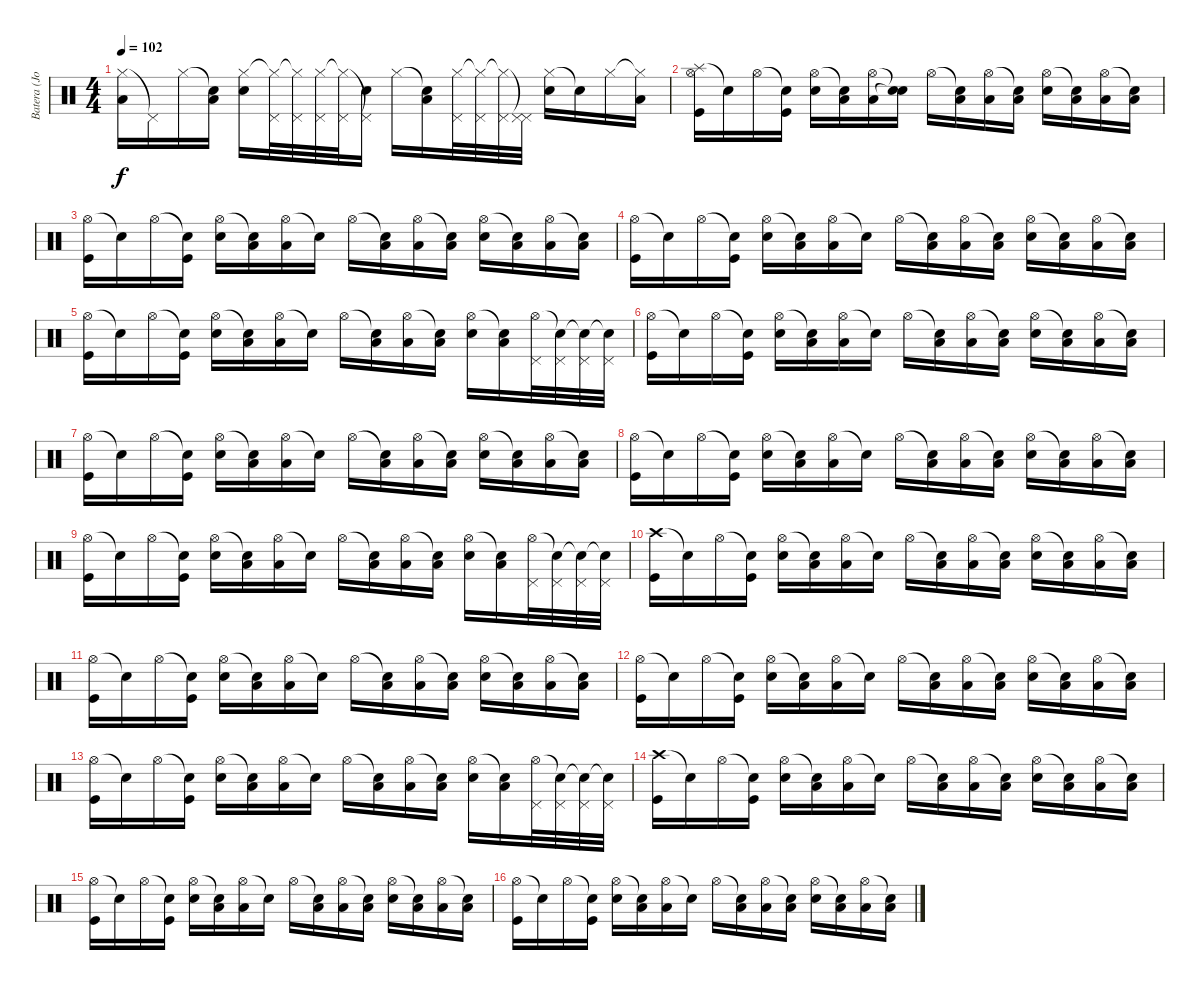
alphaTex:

\track ("Batera (John)" "Batera (Jo") {instrument percussion}
\staff {score}
\articulation defaults
\ts (4 4)
\tempo 102
\clef neutral
\ks c
("Hi-Hat (closed)" "Low Tom (hit)").16{dy f} "Pedal Hi-Hat (hit)"{t}.16 "Hi-Hat (closed)".16 ("Snare (hit)"{t} "Low Tom (hit)").16 ("Hi-Hat (closed)" "Snare (hit) 2").16 ("Hi-Hat (closed)"{t} "Pedal Hi-Hat (hit)").32 ("Hi-Hat (closed)"{t} "Pedal Hi-Hat (hit)").32 ("Hi-Hat (closed)" "Pedal Hi-Hat (hit)").32 ("Hi-Hat (closed)"{t} "Pedal Hi-Hat (hit)").32 ("Pedal Hi-Hat (hit)"{t} "Snare (hit) 2").16 "Hi-Hat (closed)".16 ("Snare (hit)"{t} "Low Tom (hit)").16 ("Hi-Hat (closed)" "Pedal Hi-Hat (hit)").32 ("Hi-Hat (closed)"{t} "Pedal Hi-Hat (hit)").32 ("Hi-Hat (closed)"{t} "Pedal Hi-Hat (hit)").32 ("Pedal Hi-Hat (hit)"{t} "Pedal Hi-Hat (hit)").32 ("Hi-Hat (closed)" "Snare (hit) 2").16 "Snare (hit)"{t}.16 "Hi-Hat (closed)".16 ("Hi-Hat (closed)"{t} "Low Tom (hit)").16 |
("Splash (hit)" "Hi-Hat (open)" "Kick (hit)").16 "Snare (hit)"{t}.16 "Hi-Hat (open)".16 ("Snare (hit)"{t} "Kick (hit)").16 ("Hi-Hat (open)" "Snare (hit) 2").16 ("Snare (hit)"{t} "Low Tom (hit)").16 ("Hi-Hat (open)" "Low Tom (hit)").16 ("Snare (hit)"{t} "Snare (hit)"{t}).16 "Hi-Hat (open)".16 ("Snare (hit)"{t} "Low Tom (hit)").16 ("Hi-Hat (open)" "Low Tom (hit)").16 ("Snare (hit)"{t} "Low Tom (hit)").16 ("Hi-Hat (open)" "Snare (hit) 2").16 ("Snare (hit)"{t} "Low Tom (hit)").16 ("Hi-Hat (open)" "Low Tom (hit)").16 ("Snare (hit)"{t} "Low Tom (hit)").16 |
("Hi-Hat (open)" "Kick (hit)").16 "Snare (hit)"{t}.16 "Hi-Hat (open)".16 ("Snare (hit)"{t} "Kick (hit)").16 ("Hi-Hat (open)" "Snare (hit) 2").16 ("Snare (hit)"{t} "Low Tom (hit)").16 ("Hi-Hat (open)" "Low Tom (hit)").16 "Snare (hit)"{t}.16 "Hi-Hat (open)".16 ("Snare (hit)"{t} "Low Tom (hit)").16 ("Hi-Hat (open)" "Low Tom (hit)").16 ("Snare (hit)"{t} "Low Tom (hit)").16 ("Hi-Hat (open)" "Snare (hit) 2").16 ("Snare (hit)"{t} "Low Tom (hit)").16 ("Hi-Hat (open)" "Low Tom (hit)").16 ("Snare (hit)"{t} "Low Tom (hit)").16 |
("Hi-Hat (open)" "Kick (hit)").16 "Snare (hit)"{t}.16 "Hi-Hat (open)".16 ("Snare (hit)"{t} "Kick (hit)").16 ("Hi-Hat (open)" "Snare (hit) 2").16 ("Snare (hit)"{t} "Low Tom (hit)").16 ("Hi-Hat (open)" "Low Tom (hit)").16 "Snare (hit)"{t}.16 "Hi-Hat (open)".16 ("Snare (hit)"{t} "Low Tom (hit)").16 ("Hi-Hat (open)" "Low Tom (hit)").16 ("Snare (hit)"{t} "Low Tom (hit)").16 ("Hi-Hat (open)" "Snare (hit) 2").16 ("Snare (hit)"{t} "Low Tom (hit)").16 ("Hi-Hat (open)" "Low Tom (hit)").16 ("Snare (hit)"{t} "Low Tom (hit)").16 |
("Hi-Hat (open)" "Kick (hit)").16 "Snare (hit)"{t}.16 "Hi-Hat (open)".16 ("Snare (hit)"{t} "Kick (hit)").16 ("Hi-Hat (open)" "Snare (hit) 2").16 ("Snare (hit)"{t} "Low Tom (hit)").16 ("Hi-Hat (open)" "Low Tom (hit)").16 "Snare (hit)"{t}.16 "Hi-Hat (open)".16 ("Snare (hit)"{t} "Low Tom (hit)").16 ("Hi-Hat (open)" "Low Tom (hit)").16 ("Snare (hit)"{t} "Low Tom (hit)").16 ("Hi-Hat (open)" "Snare (hit) 2").16 ("Snare (hit)"{t} "Low Tom (hit)").16 ("Hi-Hat (open)" "Pedal Hi-Hat (hit)").32 ("Snare (hit)"{t} "Pedal Hi-Hat (hit)").32 ("Snare (hit)"{t} "Pedal Hi-Hat (hit)").32 ("Snare (hit)"{t} "Pedal Hi-Hat (hit)").32 |
("Hi-Hat (open)" "Kick (hit)").16 "Snare (hit)"{t}.16 "Hi-Hat (open)".16 ("Snare (hit)"{t} "Kick (hit)").16 ("Hi-Hat (open)" "Snare (hit) 2").16 ("Snare (hit)"{t} "Low Tom (hit)").16 ("Hi-Hat (open)" "Low Tom (hit)").16 "Snare (hit)"{t}.16 "Hi-Hat (open)".16 ("Snare (hit)"{t} "Low Tom (hit)").16 ("Hi-Hat (open)" "Low Tom (hit)").16 ("Snare (hit)"{t} "Low Tom (hit)").16 ("Hi-Hat (open)" "Snare (hit) 2").16 ("Snare (hit)"{t} "Low Tom (hit)").16 ("Hi-Hat (open)" "Low Tom (hit)").16 ("Snare (hit)"{t} "Low Tom (hit)").16 |
("Hi-Hat (open)" "Kick (hit)").16 "Snare (hit)"{t}.16 "Hi-Hat (open)".16 ("Snare (hit)"{t} "Kick (hit)").16 ("Hi-Hat (open)" "Snare (hit) 2").16 ("Snare (hit)"{t} "Low Tom (hit)").16 ("Hi-Hat (open)" "Low Tom (hit)").16 "Snare (hit)"{t}.16 "Hi-Hat (open)".16 ("Snare (hit)"{t} "Low Tom (hit)").16 ("Hi-Hat (open)" "Low Tom (hit)").16 ("Snare (hit)"{t} "Low Tom (hit)").16 ("Hi-Hat (open)" "Snare (hit) 2").16 ("Snare (hit)"{t} "Low Tom (hit)").16 ("Hi-Hat (open)" "Low Tom (hit)").16 ("Snare (hit)"{t} "Low Tom (hit)").16 |
("Hi-Hat (open)" "Kick (hit)").16 "Snare (hit)"{t}.16 "Hi-Hat (open)".16 ("Snare (hit)"{t} "Kick (hit)").16 ("Hi-Hat (open)" "Snare (hit) 2").16 ("Snare (hit)"{t} "Low Tom (hit)").16 ("Hi-Hat (open)" "Low Tom (hit)").16 "Snare (hit)"{t}.16 "Hi-Hat (open)".16 ("Snare (hit)"{t} "Low Tom (hit)").16 ("Hi-Hat (open)" "Low Tom (hit)").16 ("Snare (hit)"{t} "Low Tom (hit)").16 ("Hi-Hat (open)" "Snare (hit) 2").16 ("Snare (hit)"{t} "Low Tom (hit)").16 ("Hi-Hat (open)" "Low Tom (hit)").16 ("Snare (hit)"{t} "Low Tom (hit)").16 |
("Hi-Hat (open)" "Kick (hit)").16 "Snare (hit)"{t}.16 "Hi-Hat (open)".16 ("Snare (hit)"{t} "Kick (hit)").16 ("Hi-Hat (open)" "Snare (hit) 2").16 ("Snare (hit)"{t} "Low Tom (hit)").16 ("Hi-Hat (open)" "Low Tom (hit)").16 "Snare (hit)"{t}.16 "Hi-Hat (open)".16 ("Snare (hit)"{t} "Low Tom (hit)").16 ("Hi-Hat (open)" "Low Tom (hit)").16 ("Snare (hit)"{t} "Low Tom (hit)").16 ("Hi-Hat (open)" "Snare (hit) 2").16 ("Snare (hit)"{t} "Low Tom (hit)").16 ("Hi-Hat (open)" "Pedal Hi-Hat (hit)").32 ("Snare (hit)"{t} "Pedal Hi-Hat (hit)").32 ("Snare (hit)"{t} "Pedal Hi-Hat (hit)").32 ("Snare (hit)"{t} "Pedal Hi-Hat (hit)").32 |
("Crash high (hit)" "Kick (hit)").16 "Snare (hit)"{t}.16 "Hi-Hat (open)".16 ("Snare (hit)"{t} "Kick (hit)").16 ("Hi-Hat (open)" "Snare (hit) 2").16 ("Snare (hit)"{t} "Low Tom (hit)").16 ("Hi-Hat (open)" "Low Tom (hit)").16 "Snare (hit)"{t}.16 "Hi-Hat (open)".16 ("Snare (hit)"{t} "Low Tom (hit)").16 ("Hi-Hat (open)" "Low Tom (hit)").16 ("Snare (hit)"{t} "Low Tom (hit)").16 ("Hi-Hat (open)" "Snare (hit) 2").16 ("Snare (hit)"{t} "Low Tom (hit)").16 ("Hi-Hat (open)" "Low Tom (hit)").16 ("Snare (hit)"{t} "Low Tom (hit)").16 |
("Hi-Hat (open)" "Kick (hit)").16 "Snare (hit)"{t}.16 "Hi-Hat (open)".16 ("Snare (hit)"{t} "Kick (hit)").16 ("Hi-Hat (open)" "Snare (hit) 2").16 ("Snare (hit)"{t} "Low Tom (hit)").16 ("Hi-Hat (open)" "Low Tom (hit)").16 "Snare (hit)"{t}.16 "Hi-Hat (open)".16 ("Snare (hit)"{t} "Low Tom (hit)").16 ("Hi-Hat (open)" "Low Tom (hit)").16 ("Snare (hit)"{t} "Low Tom (hit)").16 ("Hi-Hat (open)" "Snare (hit) 2").16 ("Snare (hit)"{t} "Low Tom (hit)").16 ("Hi-Hat (open)" "Low Tom (hit)").16 ("Snare (hit)"{t} "Low Tom (hit)").16 |
("Hi-Hat (open)" "Kick (hit)").16 "Snare (hit)"{t}.16 "Hi-Hat (open)".16 ("Snare (hit)"{t} "Kick (hit)").16 ("Hi-Hat (open)" "Snare (hit) 2").16 ("Snare (hit)"{t} "Low Tom (hit)").16 ("Hi-Hat (open)" "Low Tom (hit)").16 "Snare (hit)"{t}.16 "Hi-Hat (open)".16 ("Snare (hit)"{t} "Low Tom (hit)").16 ("Hi-Hat (open)" "Low Tom (hit)").16 ("Snare (hit)"{t} "Low Tom (hit)").16 ("Hi-Hat (open)" "Snare (hit) 2").16 ("Snare (hit)"{t} "Low Tom (hit)").16 ("Hi-Hat (open)" "Low Tom (hit)").16 ("Snare (hit)"{t} "Low Tom (hit)").16 |
("Hi-Hat (open)" "Kick (hit)").16 "Snare (hit)"{t}.16 "Hi-Hat (open)".16 ("Snare (hit)"{t} "Kick (hit)").16 ("Hi-Hat (open)" "Snare (hit) 2").16 ("Snare (hit)"{t} "Low Tom (hit)").16 ("Hi-Hat (open)" "Low Tom (hit)").16 "Snare (hit)"{t}.16 "Hi-Hat (open)".16 ("Snare (hit)"{t} "Low Tom (hit)").16 ("Hi-Hat (open)" "Low Tom (hit)").16 ("Snare (hit)"{t} "Low Tom (hit)").16 ("Hi-Hat (open)" "Snare (hit) 2").16 ("Snare (hit)"{t} "Low Tom (hit)").16 ("Hi-Hat (open)" "Pedal Hi-Hat (hit)").32 ("Snare (hit)"{t} "Pedal Hi-Hat (hit)").32 ("Snare (hit)"{t} "Pedal Hi-Hat (hit)").32 ("Snare (hit)"{t} "Pedal Hi-Hat (hit)").32 |
("Crash high (hit)" "Kick (hit)").16 "Snare (hit)"{t}.16 "Hi-Hat (open)".16 ("Snare (hit)"{t} "Kick (hit)").16 ("Hi-Hat (open)" "Snare (hit) 2").16 ("Snare (hit)"{t} "Low Tom (hit)").16 ("Hi-Hat (open)" "Low Tom (hit)").16 "Snare (hit)"{t}.16 "Hi-Hat (open)".16 ("Snare (hit)"{t} "Low Tom (hit)").16 ("Hi-Hat (open)" "Low Tom (hit)").16 ("Snare (hit)"{t} "Low Tom (hit)").16 ("Hi-Hat (open)" "Snare (hit) 2").16 ("Snare (hit)"{t} "Low Tom (hit)").16 ("Hi-Hat (open)" "Low Tom (hit)").16 ("Snare (hit)"{t} "Low Tom (hit)").16 |
("Hi-Hat (open)" "Kick (hit)").16 "Snare (hit)"{t}.16 "Hi-Hat (open)".16 ("Snare (hit)"{t} "Kick (hit)").16 ("Hi-Hat (open)" "Snare (hit) 2").16 ("Snare (hit)"{t} "Low Tom (hit)").16 ("Hi-Hat (open)" "Low Tom (hit)").16 "Snare (hit)"{t}.16 "Hi-Hat (open)".16 ("Snare (hit)"{t} "Low Tom (hit)").16 ("Hi-Hat (open)" "Low Tom (hit)").16 ("Snare (hit)"{t} "Low Tom (hit)").16 ("Hi-Hat (open)" "Snare (hit) 2").16 ("Snare (hit)"{t} "Low Tom (hit)").16 ("Hi-Hat (open)" "Low Tom (hit)").16 ("Snare (hit)"{t} "Low Tom (hit)").16 |
("Hi-Hat (open)" "Kick (hit)").16 "Snare (hit)"{t}.16 "Hi-Hat (open)".16 ("Snare (hit)"{t} "Kick (hit)").16 ("Hi-Hat (open)" "Snare (hit) 2").16 ("Snare (hit)"{t} "Low Tom (hit)").16 ("Hi-Hat (open)" "Low Tom (hit)").16 "Snare (hit)"{t}.16 "Hi-Hat (open)".16 ("Snare (hit)"{t} "Low Tom (hit)").16 ("Hi-Hat (open)" "Low Tom (hit)").16 ("Snare (hit)"{t} "Low Tom (hit)").16 ("Hi-Hat (open)" "Snare (hit) 2").16 ("Snare (hit)"{t} "Low Tom (hit)").16 ("Hi-Hat (open)" "Low Tom (hit)").16 ("Snare (hit)"{t} "Low Tom (hit)").16
